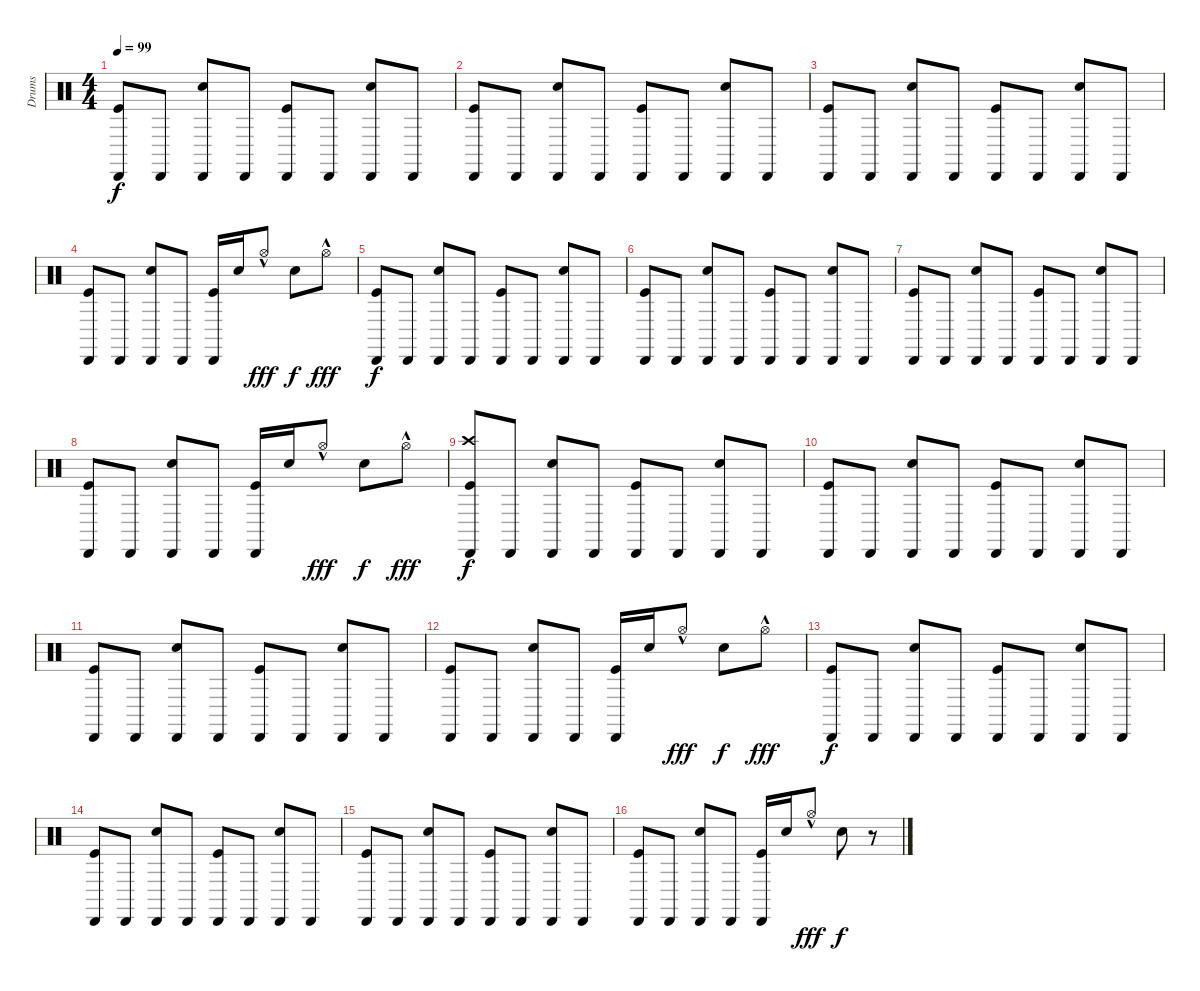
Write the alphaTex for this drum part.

\track ("Drums" "Drums") {instrument percussion}
\staff {score}
\articulation defaults
\ts (4 4)
\tempo 99
\clef neutral
\ks c
("Cabasa (hit)" "Kick (hit)").8{dy f} "Cabasa (hit)".8 ("Cabasa (hit)" "Electric Snare (hit)").8 "Cabasa (hit)".8 ("Cabasa (hit)" "Kick (hit)").8 "Cabasa (hit)".8 ("Cabasa (hit)" "Electric Snare (hit)").8 "Cabasa (hit)".8 |
("Cabasa (hit)" "Kick (hit)").8 "Cabasa (hit)".8 ("Cabasa (hit)" "Electric Snare (hit)").8 "Cabasa (hit)".8 ("Cabasa (hit)" "Kick (hit)").8 "Cabasa (hit)".8 ("Cabasa (hit)" "Electric Snare (hit)").8 "Cabasa (hit)".8 |
("Cabasa (hit)" "Kick (hit)").8 "Cabasa (hit)".8 ("Cabasa (hit)" "Electric Snare (hit)").8 "Cabasa (hit)".8 ("Cabasa (hit)" "Kick (hit)").8 "Cabasa (hit)".8 ("Cabasa (hit)" "Electric Snare (hit)").8 "Cabasa (hit)".8 |
("Cabasa (hit)" "Kick (hit)").8 "Cabasa (hit)".8 ("Cabasa (hit)" "Electric Snare (hit)").8 "Cabasa (hit)".8 ("Cabasa (hit)" "Kick (hit)").16 "Electric Snare (hit)".16 "Hi-Hat (open)"{hac}.8{dy fff} "Electric Snare (hit)".8{dy f} "Hi-Hat (open)"{hac}.8{dy fff} |
("Cabasa (hit)" "Kick (hit)").8{dy f} "Cabasa (hit)".8 ("Cabasa (hit)" "Electric Snare (hit)").8 "Cabasa (hit)".8 ("Cabasa (hit)" "Kick (hit)").8 "Cabasa (hit)".8 ("Cabasa (hit)" "Electric Snare (hit)").8 "Cabasa (hit)".8 |
("Cabasa (hit)" "Kick (hit)").8 "Cabasa (hit)".8 ("Cabasa (hit)" "Electric Snare (hit)").8 "Cabasa (hit)".8 ("Cabasa (hit)" "Kick (hit)").8 "Cabasa (hit)".8 ("Cabasa (hit)" "Electric Snare (hit)").8 "Cabasa (hit)".8 |
("Cabasa (hit)" "Kick (hit)").8 "Cabasa (hit)".8 ("Cabasa (hit)" "Electric Snare (hit)").8 "Cabasa (hit)".8 ("Cabasa (hit)" "Kick (hit)").8 "Cabasa (hit)".8 ("Cabasa (hit)" "Electric Snare (hit)").8 "Cabasa (hit)".8 |
("Cabasa (hit)" "Kick (hit)").8 "Cabasa (hit)".8 ("Cabasa (hit)" "Electric Snare (hit)").8 "Cabasa (hit)".8 ("Cabasa (hit)" "Kick (hit)").16 "Electric Snare (hit)".16 "Hi-Hat (open)"{hac}.8{dy fff} "Electric Snare (hit)".8{dy f} "Hi-Hat (open)"{hac}.8{dy fff} |
("Crash high (hit)" "Cabasa (hit)" "Kick (hit)").8{dy f} "Cabasa (hit)".8 ("Cabasa (hit)" "Electric Snare (hit)").8 "Cabasa (hit)".8 ("Cabasa (hit)" "Kick (hit)").8 "Cabasa (hit)".8 ("Cabasa (hit)" "Electric Snare (hit)").8 "Cabasa (hit)".8 |
("Cabasa (hit)" "Kick (hit)").8 "Cabasa (hit)".8 ("Cabasa (hit)" "Electric Snare (hit)").8 "Cabasa (hit)".8 ("Cabasa (hit)" "Kick (hit)").8 "Cabasa (hit)".8 ("Cabasa (hit)" "Electric Snare (hit)").8 "Cabasa (hit)".8 |
("Cabasa (hit)" "Kick (hit)").8 "Cabasa (hit)".8 ("Cabasa (hit)" "Electric Snare (hit)").8 "Cabasa (hit)".8 ("Cabasa (hit)" "Kick (hit)").8 "Cabasa (hit)".8 ("Cabasa (hit)" "Electric Snare (hit)").8 "Cabasa (hit)".8 |
("Cabasa (hit)" "Kick (hit)").8 "Cabasa (hit)".8 ("Cabasa (hit)" "Electric Snare (hit)").8 "Cabasa (hit)".8 ("Cabasa (hit)" "Kick (hit)").16 "Electric Snare (hit)".16 "Hi-Hat (open)"{hac}.8{dy fff} "Electric Snare (hit)".8{dy f} "Hi-Hat (open)"{hac}.8{dy fff} |
("Cabasa (hit)" "Kick (hit)").8{dy f} "Cabasa (hit)".8 ("Cabasa (hit)" "Electric Snare (hit)").8 "Cabasa (hit)".8 ("Cabasa (hit)" "Kick (hit)").8 "Cabasa (hit)".8 ("Cabasa (hit)" "Electric Snare (hit)").8 "Cabasa (hit)".8 |
("Cabasa (hit)" "Kick (hit)").8 "Cabasa (hit)".8 ("Cabasa (hit)" "Electric Snare (hit)").8 "Cabasa (hit)".8 ("Cabasa (hit)" "Kick (hit)").8 "Cabasa (hit)".8 ("Cabasa (hit)" "Electric Snare (hit)").8 "Cabasa (hit)".8 |
("Cabasa (hit)" "Kick (hit)").8 "Cabasa (hit)".8 ("Cabasa (hit)" "Electric Snare (hit)").8 "Cabasa (hit)".8 ("Cabasa (hit)" "Kick (hit)").8 "Cabasa (hit)".8 ("Cabasa (hit)" "Electric Snare (hit)").8 "Cabasa (hit)".8 |
("Cabasa (hit)" "Kick (hit)").8 "Cabasa (hit)".8 ("Cabasa (hit)" "Electric Snare (hit)").8 "Cabasa (hit)".8 ("Cabasa (hit)" "Kick (hit)").16 "Electric Snare (hit)".16 "Hi-Hat (open)"{hac}.8{dy fff} "Electric Snare (hit)".8{dy f} r.8
